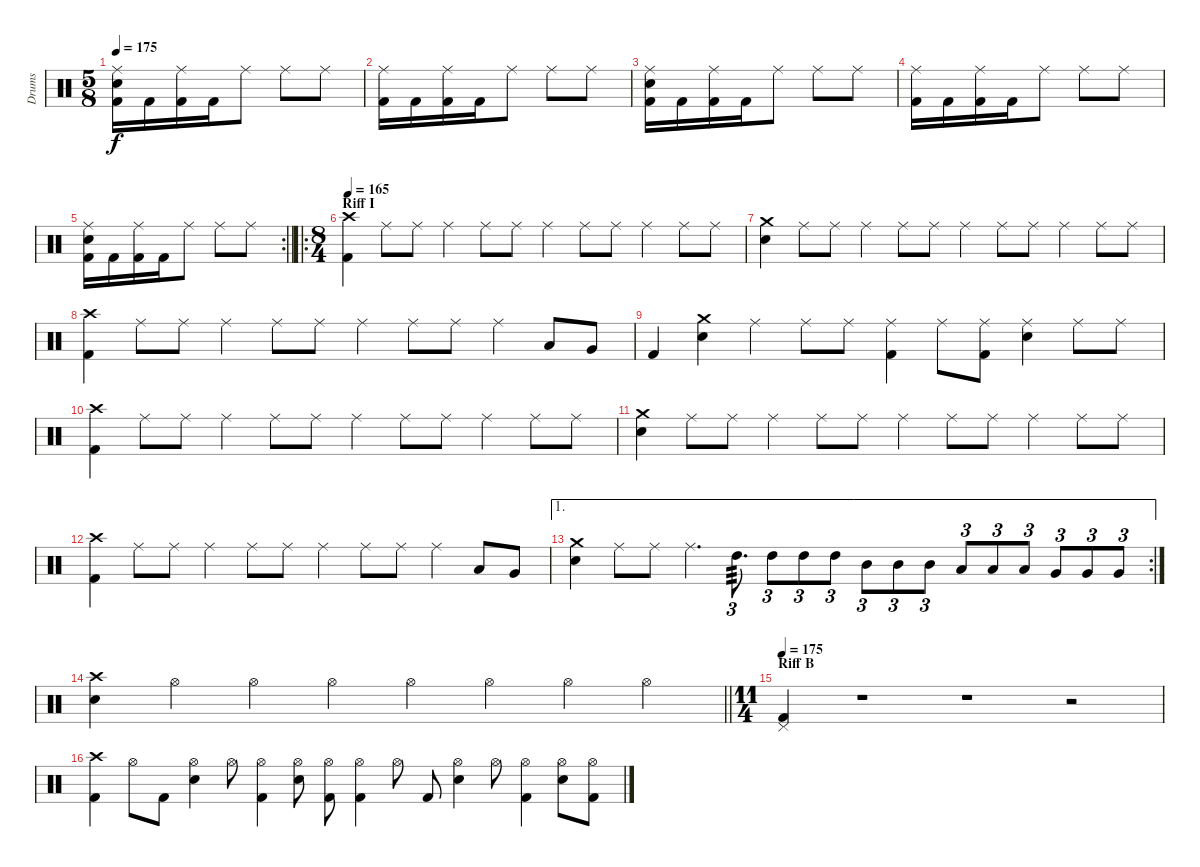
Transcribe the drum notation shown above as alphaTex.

\track ("Drums" "Drums") {instrument percussion}
\staff {score}
\articulation defaults
\ts (5 8)
\tempo 175
\clef neutral
\ks c
("Ride (middle)" "Kick (hit) 2" "Snare (hit) 2").16{dy f} "Kick (hit) 2".16 ("Kick (hit) 2" "Ride (middle)").16 "Kick (hit) 2".16 "Ride (middle)".8 "Ride (middle)".8 "Ride (middle)".8 |
("Ride (middle)" "Kick (hit) 2").16 "Kick (hit) 2".16 ("Kick (hit) 2" "Ride (middle)").16 "Kick (hit) 2".16 "Ride (middle)".8 "Ride (middle)".8 "Ride (middle)".8 |
("Ride (middle)" "Kick (hit) 2" "Snare (hit) 2").16 "Kick (hit) 2".16 ("Kick (hit) 2" "Ride (middle)").16 "Kick (hit) 2".16 "Ride (middle)".8 "Ride (middle)".8 "Ride (middle)".8 |
("Ride (middle)" "Kick (hit) 2").16 "Kick (hit) 2".16 ("Kick (hit) 2" "Ride (middle)").16 "Kick (hit) 2".16 "Ride (middle)".8 "Ride (middle)".8 "Ride (middle)".8 |
\rc 2
\barLineRight lightlight
("Ride (middle)" "Kick (hit) 2" "Snare (hit) 2").16 "Kick (hit) 2".16 ("Kick (hit) 2" "Ride (middle)").16 "Kick (hit) 2".16 "Ride (middle)".8 "Ride (middle)".8 "Ride (middle)".8 |
\ro
\ts (8 4)
\section ("" "Riff I")
\tempo 165
("Crash high (hit)" "Kick (hit) 2").4 "Ride (middle)".8 "Ride (middle)".8 "Ride (middle)".4 "Ride (middle)".8 "Ride (middle)".8 "Ride (middle)".4 "Ride (middle)".8 "Ride (middle)".8 "Ride (middle)".4 "Ride (middle)".8 "Ride (middle)".8 |
("Snare (hit) 2" "Crash medium (hit)").4 "Ride (middle)".8 "Ride (middle)".8 "Ride (middle)".4 "Ride (middle)".8 "Ride (middle)".8 "Ride (middle)".4 "Ride (middle)".8 "Ride (middle)".8 "Ride (middle)".4 "Ride (middle)".8 "Ride (middle)".8 |
("Kick (hit) 2" "Crash high (hit)").4 "Ride (middle)".8 "Ride (middle)".8 "Ride (middle)".4 "Ride (middle)".8 "Ride (middle)".8 "Ride (middle)".4 "Ride (middle)".8 "Ride (middle)".8 "Ride (middle)".4 "Low Tom (hit)".8 "Very Low Tom (hit)".8 |
"Kick (hit) 2".4 ("Crash medium (hit)" "Snare (hit) 2").4 "Ride (middle)".4 "Ride (middle)".8 "Ride (middle)".8 ("Ride (middle)" "Kick (hit) 2").4 "Ride (middle)".8 ("Ride (middle)" "Kick (hit) 2").8 ("Snare (hit) 2" "Ride (middle)").4 "Ride (middle)".8 "Ride (middle)".8 |
("Crash high (hit)" "Kick (hit) 2").4 "Ride (middle)".8 "Ride (middle)".8 "Ride (middle)".4 "Ride (middle)".8 "Ride (middle)".8 "Ride (middle)".4 "Ride (middle)".8 "Ride (middle)".8 "Ride (middle)".4 "Ride (middle)".8 "Ride (middle)".8 |
("Snare (hit) 2" "Crash medium (hit)").4 "Ride (middle)".8 "Ride (middle)".8 "Ride (middle)".4 "Ride (middle)".8 "Ride (middle)".8 "Ride (middle)".4 "Ride (middle)".8 "Ride (middle)".8 "Ride (middle)".4 "Ride (middle)".8 "Ride (middle)".8 |
("Kick (hit) 2" "Crash high (hit)").4 "Ride (middle)".8 "Ride (middle)".8 "Ride (middle)".4 "Ride (middle)".8 "Ride (middle)".8 "Ride (middle)".4 "Ride (middle)".8 "Ride (middle)".8 "Ride (middle)".4 "Low Tom (hit)".8 "Very Low Tom (hit)".8 |
\ae 1
\rc 2
("Crash medium (hit)" "Snare (hit) 2").4 "Ride (middle)".8 "Ride (middle)".8 "Ride (middle)".4{d} "High Tom (hit)".8{d tu (3 2) tp 3} "High Tom (hit)".8{tu (3 2)} "High Tom (hit)".8{tu (3 2)} "High Tom (hit)".8{tu (3 2)} "Mid Tom (hit)".8{tu (3 2)} "Mid Tom (hit)".8{tu (3 2)} "Mid Tom (hit)".8{tu (3 2)} "Low Tom (hit)".8{tu (3 2)} "Low Tom (hit)".8{tu (3 2)} "Low Tom (hit)".8{tu (3 2)} "Very Low Tom (hit)".8{tu (3 2)} "Very Low Tom (hit)".8{tu (3 2)} "Very Low Tom (hit)".8{tu (3 2)} |
\barLineRight lightlight
("Snare (hit) 2" "Crash high (hit)").4 "Hi-Hat (open)".4 "Hi-Hat (open)".4 "Hi-Hat (open)".4 "Hi-Hat (open)".4 "Hi-Hat (open)".4 "Hi-Hat (open)".4 "Hi-Hat (open)".4 |
\ts (11 4)
\section ("" "Riff B")
\tempo 175
("Kick (hit) 2" "Pedal Hi-Hat (hit)").4 r.1 r.1 r.2 |
("Crash high (hit)" "Kick (hit) 2").4 "Hi-Hat (open)".8 "Kick (hit) 2".8 ("Hi-Hat (open)" "Snare (hit) 2").4 "Hi-Hat (open)".8 ("Hi-Hat (open)" "Kick (hit) 2").4 ("Hi-Hat (open)" "Snare (hit) 2").8 ("Hi-Hat (open)" "Kick (hit) 2").8 ("Hi-Hat (open)" "Kick (hit) 2").4 "Hi-Hat (open)".8 "Kick (hit) 2".8 ("Hi-Hat (open)" "Snare (hit) 2").4 "Hi-Hat (open)".8 ("Hi-Hat (open)" "Kick (hit) 2").4 ("Hi-Hat (open)" "Snare (hit) 2").8 ("Hi-Hat (open)" "Kick (hit) 2").8
